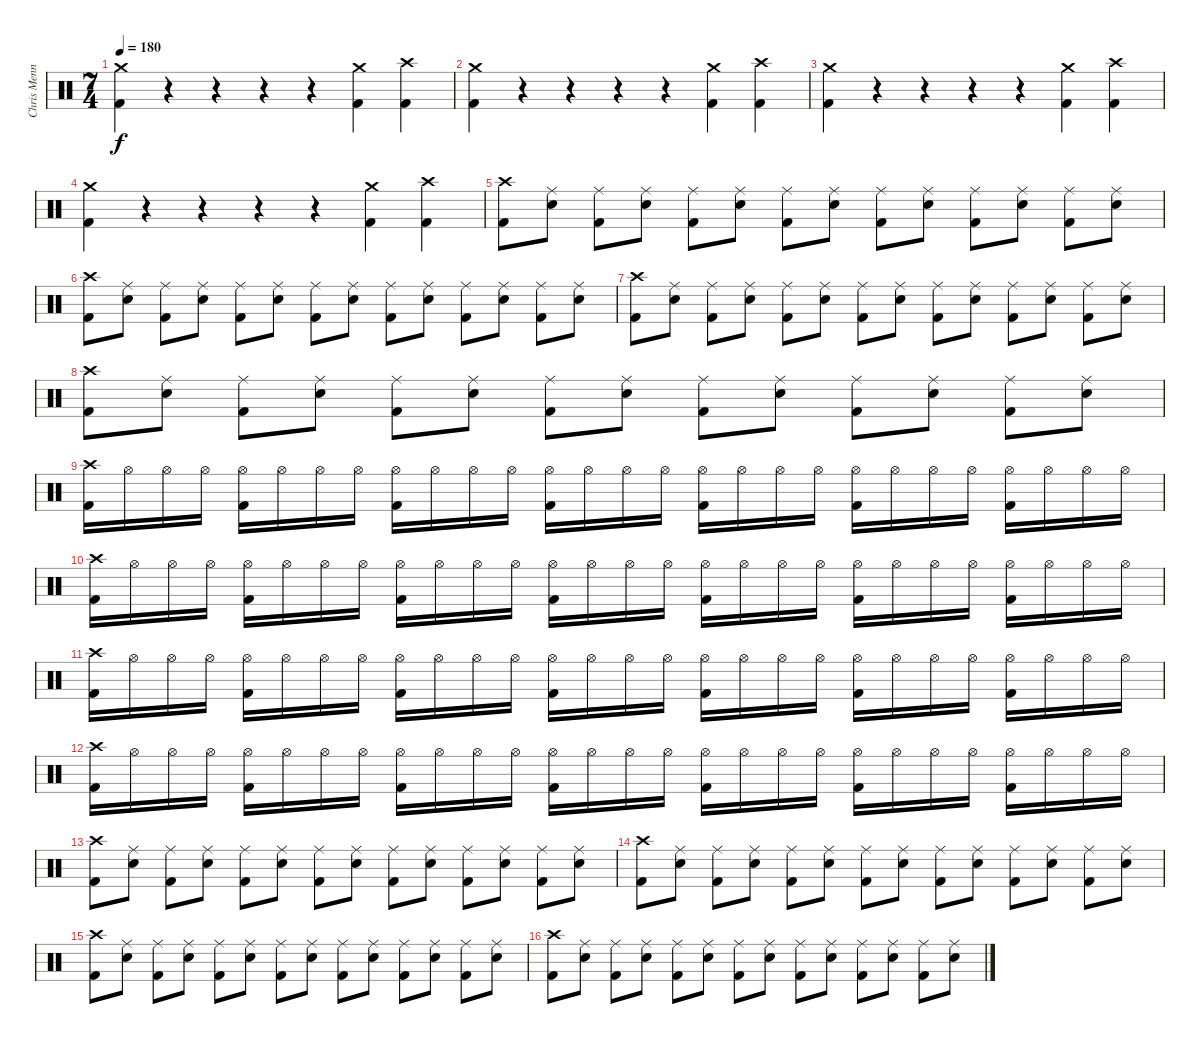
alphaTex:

\track ("Chris Menning" "Chris Menn") {instrument percussion}
\staff {score}
\articulation defaults
\ts (7 4)
\tempo 180
\clef neutral
\ks c
("Crash medium (hit)" "Kick (hit) 2").4{dy f} r.4 r.4 r.4 r.4 ("Crash medium (hit)" "Kick (hit) 2").4 ("Crash high (hit)" "Kick (hit) 2").4 |
("Crash medium (hit)" "Kick (hit) 2").4 r.4 r.4 r.4 r.4 ("Crash medium (hit)" "Kick (hit) 2").4 ("Crash high (hit)" "Kick (hit) 2").4 |
("Crash medium (hit)" "Kick (hit) 2").4 r.4 r.4 r.4 r.4 ("Crash medium (hit)" "Kick (hit) 2").4 ("Crash high (hit)" "Kick (hit) 2").4 |
("Crash medium (hit)" "Kick (hit) 2").4 r.4 r.4 r.4 r.4 ("Crash medium (hit)" "Kick (hit) 2").4 ("Crash high (hit)" "Kick (hit) 2").4 |
("Crash high (hit)" "Kick (hit) 2").8 ("Ride (middle)" "Electric Snare (hit)").8 ("Ride (middle)" "Kick (hit) 2").8 ("Ride (middle)" "Electric Snare (hit)").8 ("Ride (middle)" "Kick (hit) 2").8 ("Ride (middle)" "Electric Snare (hit)").8 ("Ride (middle)" "Kick (hit) 2").8 ("Ride (middle)" "Electric Snare (hit)").8 ("Ride (middle)" "Kick (hit) 2").8 ("Ride (middle)" "Electric Snare (hit)").8 ("Ride (middle)" "Kick (hit) 2").8 ("Ride (middle)" "Electric Snare (hit)").8 ("Ride (middle)" "Kick (hit) 2").8 ("Ride (middle)" "Electric Snare (hit)").8 |
("Crash high (hit)" "Kick (hit) 2").8 ("Ride (middle)" "Electric Snare (hit)").8 ("Ride (middle)" "Kick (hit) 2").8 ("Ride (middle)" "Electric Snare (hit)").8 ("Ride (middle)" "Kick (hit) 2").8 ("Ride (middle)" "Electric Snare (hit)").8 ("Ride (middle)" "Kick (hit) 2").8 ("Ride (middle)" "Electric Snare (hit)").8 ("Ride (middle)" "Kick (hit) 2").8 ("Ride (middle)" "Electric Snare (hit)").8 ("Ride (middle)" "Kick (hit) 2").8 ("Ride (middle)" "Electric Snare (hit)").8 ("Ride (middle)" "Kick (hit) 2").8 ("Ride (middle)" "Electric Snare (hit)").8 |
("Crash high (hit)" "Kick (hit) 2").8 ("Ride (middle)" "Electric Snare (hit)").8 ("Ride (middle)" "Kick (hit) 2").8 ("Ride (middle)" "Electric Snare (hit)").8 ("Ride (middle)" "Kick (hit) 2").8 ("Ride (middle)" "Electric Snare (hit)").8 ("Ride (middle)" "Kick (hit) 2").8 ("Ride (middle)" "Electric Snare (hit)").8 ("Ride (middle)" "Kick (hit) 2").8 ("Ride (middle)" "Electric Snare (hit)").8 ("Ride (middle)" "Kick (hit) 2").8 ("Ride (middle)" "Electric Snare (hit)").8 ("Ride (middle)" "Kick (hit) 2").8 ("Ride (middle)" "Electric Snare (hit)").8 |
("Crash high (hit)" "Kick (hit) 2").8 ("Ride (middle)" "Electric Snare (hit)").8 ("Ride (middle)" "Kick (hit) 2").8 ("Ride (middle)" "Electric Snare (hit)").8 ("Ride (middle)" "Kick (hit) 2").8 ("Ride (middle)" "Electric Snare (hit)").8 ("Ride (middle)" "Kick (hit) 2").8 ("Ride (middle)" "Electric Snare (hit)").8 ("Ride (middle)" "Kick (hit) 2").8 ("Ride (middle)" "Electric Snare (hit)").8 ("Ride (middle)" "Kick (hit) 2").8 ("Ride (middle)" "Electric Snare (hit)").8 ("Ride (middle)" "Kick (hit) 2").8 ("Ride (middle)" "Electric Snare (hit)").8 |
("Crash high (hit)" "Kick (hit) 2").16 "Hi-Hat (open)".16 "Hi-Hat (open)".16 "Hi-Hat (open)".16 ("Hi-Hat (open)" "Kick (hit) 2").16 "Hi-Hat (open)".16 "Hi-Hat (open)".16 "Hi-Hat (open)".16 ("Hi-Hat (open)" "Kick (hit) 2").16 "Hi-Hat (open)".16 "Hi-Hat (open)".16 "Hi-Hat (open)".16 ("Hi-Hat (open)" "Kick (hit) 2").16 "Hi-Hat (open)".16 "Hi-Hat (open)".16 "Hi-Hat (open)".16 ("Hi-Hat (open)" "Kick (hit) 2").16 "Hi-Hat (open)".16 "Hi-Hat (open)".16 "Hi-Hat (open)".16 ("Hi-Hat (open)" "Kick (hit) 2").16 "Hi-Hat (open)".16 "Hi-Hat (open)".16 "Hi-Hat (open)".16 ("Hi-Hat (open)" "Kick (hit) 2").16 "Hi-Hat (open)".16 "Hi-Hat (open)".16 "Hi-Hat (open)".16 |
("Crash high (hit)" "Kick (hit) 2").16 "Hi-Hat (open)".16 "Hi-Hat (open)".16 "Hi-Hat (open)".16 ("Hi-Hat (open)" "Kick (hit) 2").16 "Hi-Hat (open)".16 "Hi-Hat (open)".16 "Hi-Hat (open)".16 ("Hi-Hat (open)" "Kick (hit) 2").16 "Hi-Hat (open)".16 "Hi-Hat (open)".16 "Hi-Hat (open)".16 ("Hi-Hat (open)" "Kick (hit) 2").16 "Hi-Hat (open)".16 "Hi-Hat (open)".16 "Hi-Hat (open)".16 ("Hi-Hat (open)" "Kick (hit) 2").16 "Hi-Hat (open)".16 "Hi-Hat (open)".16 "Hi-Hat (open)".16 ("Hi-Hat (open)" "Kick (hit) 2").16 "Hi-Hat (open)".16 "Hi-Hat (open)".16 "Hi-Hat (open)".16 ("Hi-Hat (open)" "Kick (hit) 2").16 "Hi-Hat (open)".16 "Hi-Hat (open)".16 "Hi-Hat (open)".16 |
("Crash high (hit)" "Kick (hit) 2").16 "Hi-Hat (open)".16 "Hi-Hat (open)".16 "Hi-Hat (open)".16 ("Hi-Hat (open)" "Kick (hit) 2").16 "Hi-Hat (open)".16 "Hi-Hat (open)".16 "Hi-Hat (open)".16 ("Hi-Hat (open)" "Kick (hit) 2").16 "Hi-Hat (open)".16 "Hi-Hat (open)".16 "Hi-Hat (open)".16 ("Hi-Hat (open)" "Kick (hit) 2").16 "Hi-Hat (open)".16 "Hi-Hat (open)".16 "Hi-Hat (open)".16 ("Hi-Hat (open)" "Kick (hit) 2").16 "Hi-Hat (open)".16 "Hi-Hat (open)".16 "Hi-Hat (open)".16 ("Hi-Hat (open)" "Kick (hit) 2").16 "Hi-Hat (open)".16 "Hi-Hat (open)".16 "Hi-Hat (open)".16 ("Hi-Hat (open)" "Kick (hit) 2").16 "Hi-Hat (open)".16 "Hi-Hat (open)".16 "Hi-Hat (open)".16 |
("Crash high (hit)" "Kick (hit) 2").16 "Hi-Hat (open)".16 "Hi-Hat (open)".16 "Hi-Hat (open)".16 ("Hi-Hat (open)" "Kick (hit) 2").16 "Hi-Hat (open)".16 "Hi-Hat (open)".16 "Hi-Hat (open)".16 ("Hi-Hat (open)" "Kick (hit) 2").16 "Hi-Hat (open)".16 "Hi-Hat (open)".16 "Hi-Hat (open)".16 ("Hi-Hat (open)" "Kick (hit) 2").16 "Hi-Hat (open)".16 "Hi-Hat (open)".16 "Hi-Hat (open)".16 ("Hi-Hat (open)" "Kick (hit) 2").16 "Hi-Hat (open)".16 "Hi-Hat (open)".16 "Hi-Hat (open)".16 ("Hi-Hat (open)" "Kick (hit) 2").16 "Hi-Hat (open)".16 "Hi-Hat (open)".16 "Hi-Hat (open)".16 ("Hi-Hat (open)" "Kick (hit) 2").16 "Hi-Hat (open)".16 "Hi-Hat (open)".16 "Hi-Hat (open)".16 |
("Crash high (hit)" "Kick (hit) 2").8 ("Ride (middle)" "Electric Snare (hit)").8 ("Ride (middle)" "Kick (hit) 2").8 ("Ride (middle)" "Electric Snare (hit)").8 ("Ride (middle)" "Kick (hit) 2").8 ("Ride (middle)" "Electric Snare (hit)").8 ("Ride (middle)" "Kick (hit) 2").8 ("Ride (middle)" "Electric Snare (hit)").8 ("Ride (middle)" "Kick (hit) 2").8 ("Ride (middle)" "Electric Snare (hit)").8 ("Ride (middle)" "Kick (hit) 2").8 ("Ride (middle)" "Electric Snare (hit)").8 ("Ride (middle)" "Kick (hit) 2").8 ("Ride (middle)" "Electric Snare (hit)").8 |
("Crash high (hit)" "Kick (hit) 2").8 ("Ride (middle)" "Electric Snare (hit)").8 ("Ride (middle)" "Kick (hit) 2").8 ("Ride (middle)" "Electric Snare (hit)").8 ("Ride (middle)" "Kick (hit) 2").8 ("Ride (middle)" "Electric Snare (hit)").8 ("Ride (middle)" "Kick (hit) 2").8 ("Ride (middle)" "Electric Snare (hit)").8 ("Ride (middle)" "Kick (hit) 2").8 ("Ride (middle)" "Electric Snare (hit)").8 ("Ride (middle)" "Kick (hit) 2").8 ("Ride (middle)" "Electric Snare (hit)").8 ("Ride (middle)" "Kick (hit) 2").8 ("Ride (middle)" "Electric Snare (hit)").8 |
("Crash high (hit)" "Kick (hit) 2").8 ("Ride (middle)" "Electric Snare (hit)").8 ("Ride (middle)" "Kick (hit) 2").8 ("Ride (middle)" "Electric Snare (hit)").8 ("Ride (middle)" "Kick (hit) 2").8 ("Ride (middle)" "Electric Snare (hit)").8 ("Ride (middle)" "Kick (hit) 2").8 ("Ride (middle)" "Electric Snare (hit)").8 ("Ride (middle)" "Kick (hit) 2").8 ("Ride (middle)" "Electric Snare (hit)").8 ("Ride (middle)" "Kick (hit) 2").8 ("Ride (middle)" "Electric Snare (hit)").8 ("Ride (middle)" "Kick (hit) 2").8 ("Ride (middle)" "Electric Snare (hit)").8 |
("Crash high (hit)" "Kick (hit) 2").8 ("Ride (middle)" "Electric Snare (hit)").8 ("Ride (middle)" "Kick (hit) 2").8 ("Ride (middle)" "Electric Snare (hit)").8 ("Ride (middle)" "Kick (hit) 2").8 ("Ride (middle)" "Electric Snare (hit)").8 ("Ride (middle)" "Kick (hit) 2").8 ("Ride (middle)" "Electric Snare (hit)").8 ("Ride (middle)" "Kick (hit) 2").8 ("Ride (middle)" "Electric Snare (hit)").8 ("Ride (middle)" "Kick (hit) 2").8 ("Ride (middle)" "Electric Snare (hit)").8 ("Ride (middle)" "Kick (hit) 2").8 ("Ride (middle)" "Electric Snare (hit)").8
